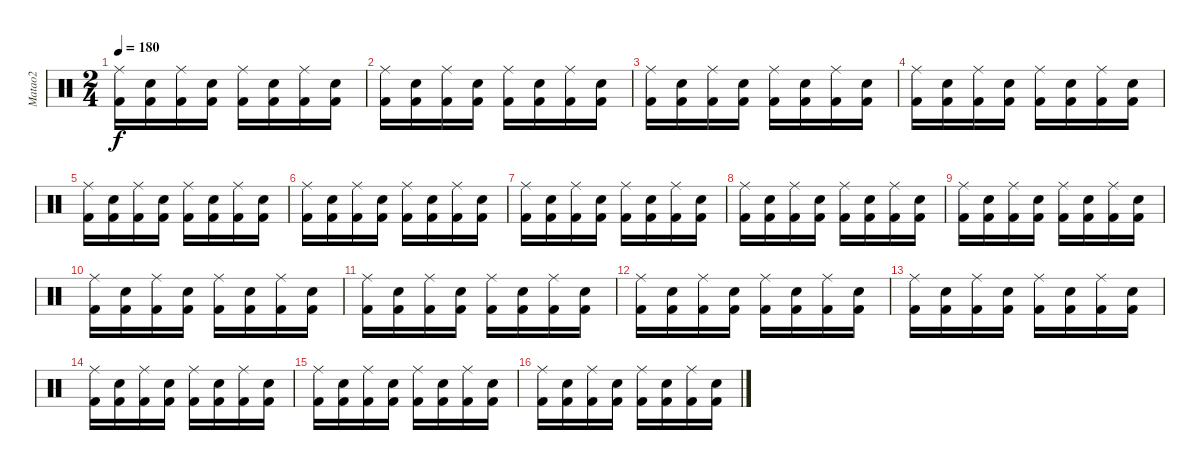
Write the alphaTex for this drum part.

\track ("Matao2" "Matao2") {instrument percussion}
\staff {score}
\articulation defaults
\ts (2 4)
\tempo 180
\clef neutral
\ks c
("Kick (hit) 2" "Ride (middle)").16{dy f} ("Kick (hit) 2" "Electric Snare (hit)").16 ("Kick (hit) 2" "Ride (middle)").16 ("Kick (hit) 2" "Electric Snare (hit)").16 ("Kick (hit) 2" "Ride (middle)").16 ("Kick (hit) 2" "Electric Snare (hit)").16 ("Kick (hit) 2" "Ride (middle)").16 ("Kick (hit) 2" "Electric Snare (hit)").16 |
("Kick (hit) 2" "Ride (middle)").16 ("Kick (hit) 2" "Electric Snare (hit)").16 ("Kick (hit) 2" "Ride (middle)").16 ("Kick (hit) 2" "Electric Snare (hit)").16 ("Kick (hit) 2" "Ride (middle)").16 ("Kick (hit) 2" "Electric Snare (hit)").16 ("Kick (hit) 2" "Ride (middle)").16 ("Kick (hit) 2" "Electric Snare (hit)").16 |
("Kick (hit) 2" "Ride (middle)").16 ("Kick (hit) 2" "Electric Snare (hit)").16 ("Kick (hit) 2" "Ride (middle)").16 ("Kick (hit) 2" "Electric Snare (hit)").16 ("Kick (hit) 2" "Ride (middle)").16 ("Kick (hit) 2" "Electric Snare (hit)").16 ("Kick (hit) 2" "Ride (middle)").16 ("Kick (hit) 2" "Electric Snare (hit)").16 |
("Kick (hit) 2" "Ride (middle)").16 ("Kick (hit) 2" "Electric Snare (hit)").16 ("Kick (hit) 2" "Ride (middle)").16 ("Kick (hit) 2" "Electric Snare (hit)").16 ("Kick (hit) 2" "Ride (middle)").16 ("Kick (hit) 2" "Electric Snare (hit)").16 ("Kick (hit) 2" "Ride (middle)").16 ("Kick (hit) 2" "Electric Snare (hit)").16 |
("Kick (hit) 2" "Ride (middle)").16 ("Kick (hit) 2" "Electric Snare (hit)").16 ("Kick (hit) 2" "Ride (middle)").16 ("Kick (hit) 2" "Electric Snare (hit)").16 ("Kick (hit) 2" "Ride (middle)").16 ("Kick (hit) 2" "Electric Snare (hit)").16 ("Kick (hit) 2" "Ride (middle)").16 ("Kick (hit) 2" "Electric Snare (hit)").16 |
("Kick (hit) 2" "Ride (middle)").16 ("Kick (hit) 2" "Electric Snare (hit)").16 ("Kick (hit) 2" "Ride (middle)").16 ("Kick (hit) 2" "Electric Snare (hit)").16 ("Kick (hit) 2" "Ride (middle)").16 ("Kick (hit) 2" "Electric Snare (hit)").16 ("Kick (hit) 2" "Ride (middle)").16 ("Kick (hit) 2" "Electric Snare (hit)").16 |
("Kick (hit) 2" "Ride (middle)").16 ("Kick (hit) 2" "Electric Snare (hit)").16 ("Kick (hit) 2" "Ride (middle)").16 ("Kick (hit) 2" "Electric Snare (hit)").16 ("Kick (hit) 2" "Ride (middle)").16 ("Kick (hit) 2" "Electric Snare (hit)").16 ("Kick (hit) 2" "Ride (middle)").16 ("Kick (hit) 2" "Electric Snare (hit)").16 |
("Kick (hit) 2" "Ride (middle)").16 ("Kick (hit) 2" "Electric Snare (hit)").16 ("Kick (hit) 2" "Ride (middle)").16 ("Kick (hit) 2" "Electric Snare (hit)").16 ("Kick (hit) 2" "Ride (middle)").16 ("Kick (hit) 2" "Electric Snare (hit)").16 ("Kick (hit) 2" "Ride (middle)").16 ("Kick (hit) 2" "Electric Snare (hit)").16 |
("Kick (hit) 2" "Ride (middle)").16 ("Kick (hit) 2" "Electric Snare (hit)").16 ("Kick (hit) 2" "Ride (middle)").16 ("Kick (hit) 2" "Electric Snare (hit)").16 ("Kick (hit) 2" "Ride (middle)").16 ("Kick (hit) 2" "Electric Snare (hit)").16 ("Kick (hit) 2" "Ride (middle)").16 ("Kick (hit) 2" "Electric Snare (hit)").16 |
("Kick (hit) 2" "Ride (middle)").16 ("Kick (hit) 2" "Electric Snare (hit)").16 ("Kick (hit) 2" "Ride (middle)").16 ("Kick (hit) 2" "Electric Snare (hit)").16 ("Kick (hit) 2" "Ride (middle)").16 ("Kick (hit) 2" "Electric Snare (hit)").16 ("Kick (hit) 2" "Ride (middle)").16 ("Kick (hit) 2" "Electric Snare (hit)").16 |
("Kick (hit) 2" "Ride (middle)").16 ("Kick (hit) 2" "Electric Snare (hit)").16 ("Kick (hit) 2" "Ride (middle)").16 ("Kick (hit) 2" "Electric Snare (hit)").16 ("Kick (hit) 2" "Ride (middle)").16 ("Kick (hit) 2" "Electric Snare (hit)").16 ("Kick (hit) 2" "Ride (middle)").16 ("Kick (hit) 2" "Electric Snare (hit)").16 |
("Kick (hit) 2" "Ride (middle)").16 ("Kick (hit) 2" "Electric Snare (hit)").16 ("Kick (hit) 2" "Ride (middle)").16 ("Kick (hit) 2" "Electric Snare (hit)").16 ("Kick (hit) 2" "Ride (middle)").16 ("Kick (hit) 2" "Electric Snare (hit)").16 ("Kick (hit) 2" "Ride (middle)").16 ("Kick (hit) 2" "Electric Snare (hit)").16 |
("Kick (hit) 2" "Ride (middle)").16 ("Kick (hit) 2" "Electric Snare (hit)").16 ("Kick (hit) 2" "Ride (middle)").16 ("Kick (hit) 2" "Electric Snare (hit)").16 ("Kick (hit) 2" "Ride (middle)").16 ("Kick (hit) 2" "Electric Snare (hit)").16 ("Kick (hit) 2" "Ride (middle)").16 ("Kick (hit) 2" "Electric Snare (hit)").16 |
("Kick (hit) 2" "Ride (middle)").16 ("Kick (hit) 2" "Electric Snare (hit)").16 ("Kick (hit) 2" "Ride (middle)").16 ("Kick (hit) 2" "Electric Snare (hit)").16 ("Kick (hit) 2" "Ride (middle)").16 ("Kick (hit) 2" "Electric Snare (hit)").16 ("Kick (hit) 2" "Ride (middle)").16 ("Kick (hit) 2" "Electric Snare (hit)").16 |
("Kick (hit) 2" "Ride (middle)").16 ("Kick (hit) 2" "Electric Snare (hit)").16 ("Kick (hit) 2" "Ride (middle)").16 ("Kick (hit) 2" "Electric Snare (hit)").16 ("Kick (hit) 2" "Ride (middle)").16 ("Kick (hit) 2" "Electric Snare (hit)").16 ("Kick (hit) 2" "Ride (middle)").16 ("Kick (hit) 2" "Electric Snare (hit)").16 |
("Kick (hit) 2" "Ride (middle)").16 ("Kick (hit) 2" "Electric Snare (hit)").16 ("Kick (hit) 2" "Ride (middle)").16 ("Kick (hit) 2" "Electric Snare (hit)").16 ("Kick (hit) 2" "Ride (middle)").16 ("Kick (hit) 2" "Electric Snare (hit)").16 ("Kick (hit) 2" "Ride (middle)").16 ("Kick (hit) 2" "Electric Snare (hit)").16
